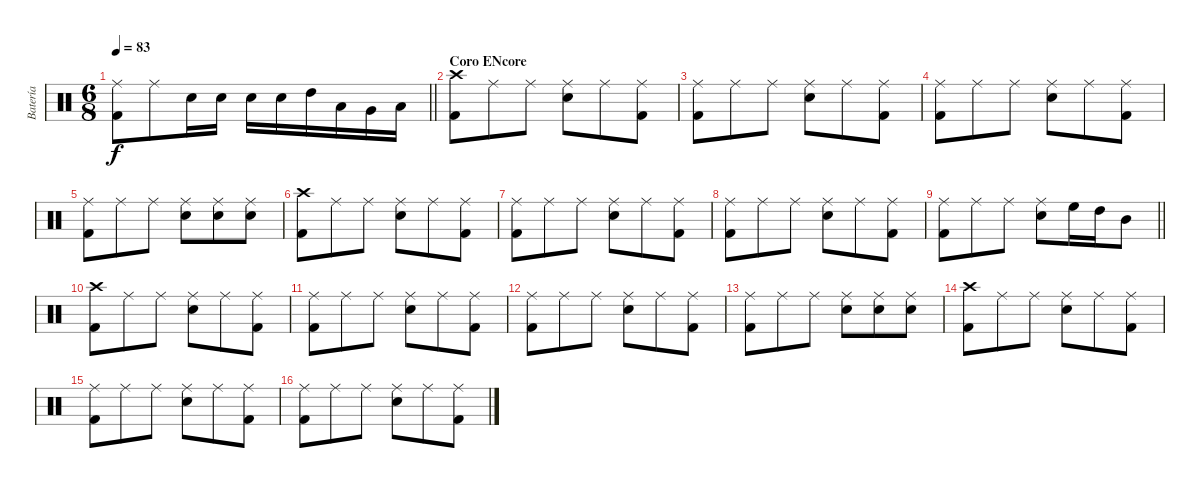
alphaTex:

\track ("Batería" "Batería") {instrument percussion}
\staff {score}
\articulation defaults
\ts (6 8)
\tempo 83
\clef neutral
\barLineRight lightlight
\ks c
("Ride (middle)" "Kick (hit) 2").8{dy f} "Ride (middle)".8 "Electric Snare (hit)".16 "Electric Snare (hit)".16 "Electric Snare (hit)".16 "Electric Snare (hit)".16 "High Tom (hit)".16 "Low Tom (hit)".16 "Very Low Tom (hit)".16 "Low Floor Tom (hit)".16 |
\section ("" "Coro ENcore")
("Crash high (hit)" "Kick (hit) 2").8 "Ride (middle)".8 "Ride (middle)".8 ("Ride (middle)" "Electric Snare (hit)").8 "Ride (middle)".8 ("Ride (middle)" "Kick (hit) 2").8 |
("Ride (middle)" "Kick (hit) 2").8 "Ride (middle)".8 "Ride (middle)".8 ("Ride (middle)" "Electric Snare (hit)").8 "Ride (middle)".8 ("Ride (middle)" "Kick (hit) 2").8 |
("Ride (middle)" "Kick (hit) 2").8 "Ride (middle)".8 "Ride (middle)".8 ("Ride (middle)" "Electric Snare (hit)").8 "Ride (middle)".8 ("Ride (middle)" "Kick (hit) 2").8 |
("Ride (middle)" "Kick (hit) 2").8 "Ride (middle)".8 "Ride (middle)".8 ("Ride (middle)" "Electric Snare (hit)").8 ("Ride (middle)" "Electric Snare (hit)").8 ("Ride (middle)" "Electric Snare (hit)").8 |
("Crash high (hit)" "Kick (hit) 2").8 "Ride (middle)".8 "Ride (middle)".8 ("Ride (middle)" "Electric Snare (hit)").8 "Ride (middle)".8 ("Ride (middle)" "Kick (hit) 2").8 |
("Ride (middle)" "Kick (hit) 2").8 "Ride (middle)".8 "Ride (middle)".8 ("Ride (middle)" "Electric Snare (hit)").8 "Ride (middle)".8 ("Ride (middle)" "Kick (hit) 2").8 |
("Ride (middle)" "Kick (hit) 2").8 "Ride (middle)".8 "Ride (middle)".8 ("Ride (middle)" "Electric Snare (hit)").8 "Ride (middle)".8 ("Ride (middle)" "Kick (hit) 2").8 |
\barLineRight lightlight
("Ride (middle)" "Kick (hit) 2").8 "Ride (middle)".8 "Ride (middle)".8 ("Ride (middle)" "Electric Snare (hit)").8 "High Floor Tom (hit)".16 "High Tom (hit)".16 "Mid Tom (hit)".8 |
("Crash high (hit)" "Kick (hit) 2").8 "Ride (middle)".8 "Ride (middle)".8 ("Ride (middle)" "Electric Snare (hit)").8 "Ride (middle)".8 ("Ride (middle)" "Kick (hit) 2").8 |
("Ride (middle)" "Kick (hit) 2").8 "Ride (middle)".8 "Ride (middle)".8 ("Ride (middle)" "Electric Snare (hit)").8 "Ride (middle)".8 ("Ride (middle)" "Kick (hit) 2").8 |
("Ride (middle)" "Kick (hit) 2").8 "Ride (middle)".8 "Ride (middle)".8 ("Ride (middle)" "Electric Snare (hit)").8 "Ride (middle)".8 ("Ride (middle)" "Kick (hit) 2").8 |
("Ride (middle)" "Kick (hit) 2").8 "Ride (middle)".8 "Ride (middle)".8 ("Ride (middle)" "Electric Snare (hit)").8 ("Ride (middle)" "Electric Snare (hit)").8 ("Ride (middle)" "Electric Snare (hit)").8 |
("Crash high (hit)" "Kick (hit) 2").8 "Ride (middle)".8 "Ride (middle)".8 ("Ride (middle)" "Electric Snare (hit)").8 "Ride (middle)".8 ("Ride (middle)" "Kick (hit) 2").8 |
("Ride (middle)" "Kick (hit) 2").8 "Ride (middle)".8 "Ride (middle)".8 ("Ride (middle)" "Electric Snare (hit)").8 "Ride (middle)".8 ("Ride (middle)" "Kick (hit) 2").8 |
("Ride (middle)" "Kick (hit) 2").8 "Ride (middle)".8 "Ride (middle)".8 ("Ride (middle)" "Electric Snare (hit)").8 "Ride (middle)".8 ("Ride (middle)" "Kick (hit) 2").8
